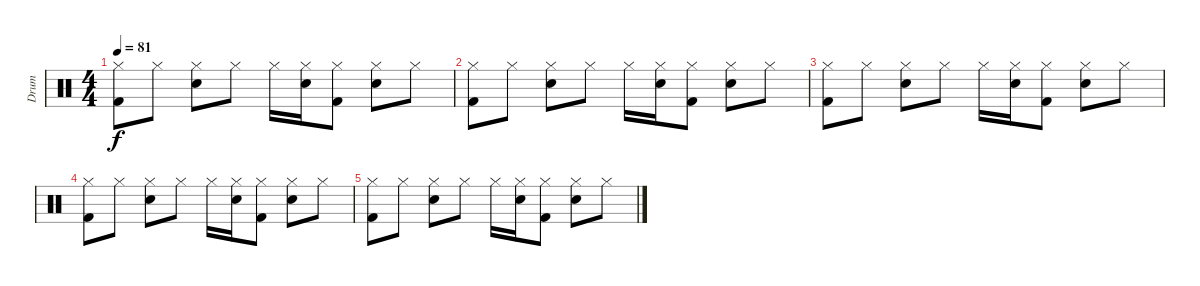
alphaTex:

\track ("Drum" "Drum") {instrument percussion}
\staff {score}
\articulation defaults
\ts (4 4)
\tempo 81
\clef neutral
\ks c
("Hi-Hat (closed)" "Kick (hit) 2").8{dy f} "Hi-Hat (closed)".8 ("Hi-Hat (closed)" "Snare (hit) 2").8 "Hi-Hat (closed)".8 "Hi-Hat (closed)".16 ("Hi-Hat (closed)" "Snare (hit) 2").16 ("Hi-Hat (closed)" "Kick (hit) 2").8 ("Hi-Hat (closed)" "Snare (hit) 2").8 "Hi-Hat (closed)".8 |
("Hi-Hat (closed)" "Kick (hit) 2").8 "Hi-Hat (closed)".8 ("Hi-Hat (closed)" "Snare (hit) 2").8 "Hi-Hat (closed)".8 "Hi-Hat (closed)".16 ("Hi-Hat (closed)" "Snare (hit) 2").16 ("Hi-Hat (closed)" "Kick (hit) 2").8 ("Hi-Hat (closed)" "Snare (hit) 2").8 "Hi-Hat (closed)".8 |
("Hi-Hat (closed)" "Kick (hit) 2").8 "Hi-Hat (closed)".8 ("Hi-Hat (closed)" "Snare (hit) 2").8 "Hi-Hat (closed)".8 "Hi-Hat (closed)".16 ("Hi-Hat (closed)" "Snare (hit) 2").16 ("Hi-Hat (closed)" "Kick (hit) 2").8 ("Hi-Hat (closed)" "Snare (hit) 2").8 "Hi-Hat (closed)".8 |
("Hi-Hat (closed)" "Kick (hit) 2").8 "Hi-Hat (closed)".8 ("Hi-Hat (closed)" "Snare (hit) 2").8 "Hi-Hat (closed)".8 "Hi-Hat (closed)".16 ("Hi-Hat (closed)" "Snare (hit) 2").16 ("Hi-Hat (closed)" "Kick (hit) 2").8 ("Hi-Hat (closed)" "Snare (hit) 2").8 "Hi-Hat (closed)".8 |
("Hi-Hat (closed)" "Kick (hit) 2").8 "Hi-Hat (closed)".8 ("Hi-Hat (closed)" "Snare (hit) 2").8 "Hi-Hat (closed)".8 "Hi-Hat (closed)".16 ("Hi-Hat (closed)" "Snare (hit) 2").16 ("Hi-Hat (closed)" "Kick (hit) 2").8 ("Hi-Hat (closed)" "Snare (hit) 2").8 "Hi-Hat (closed)".8
